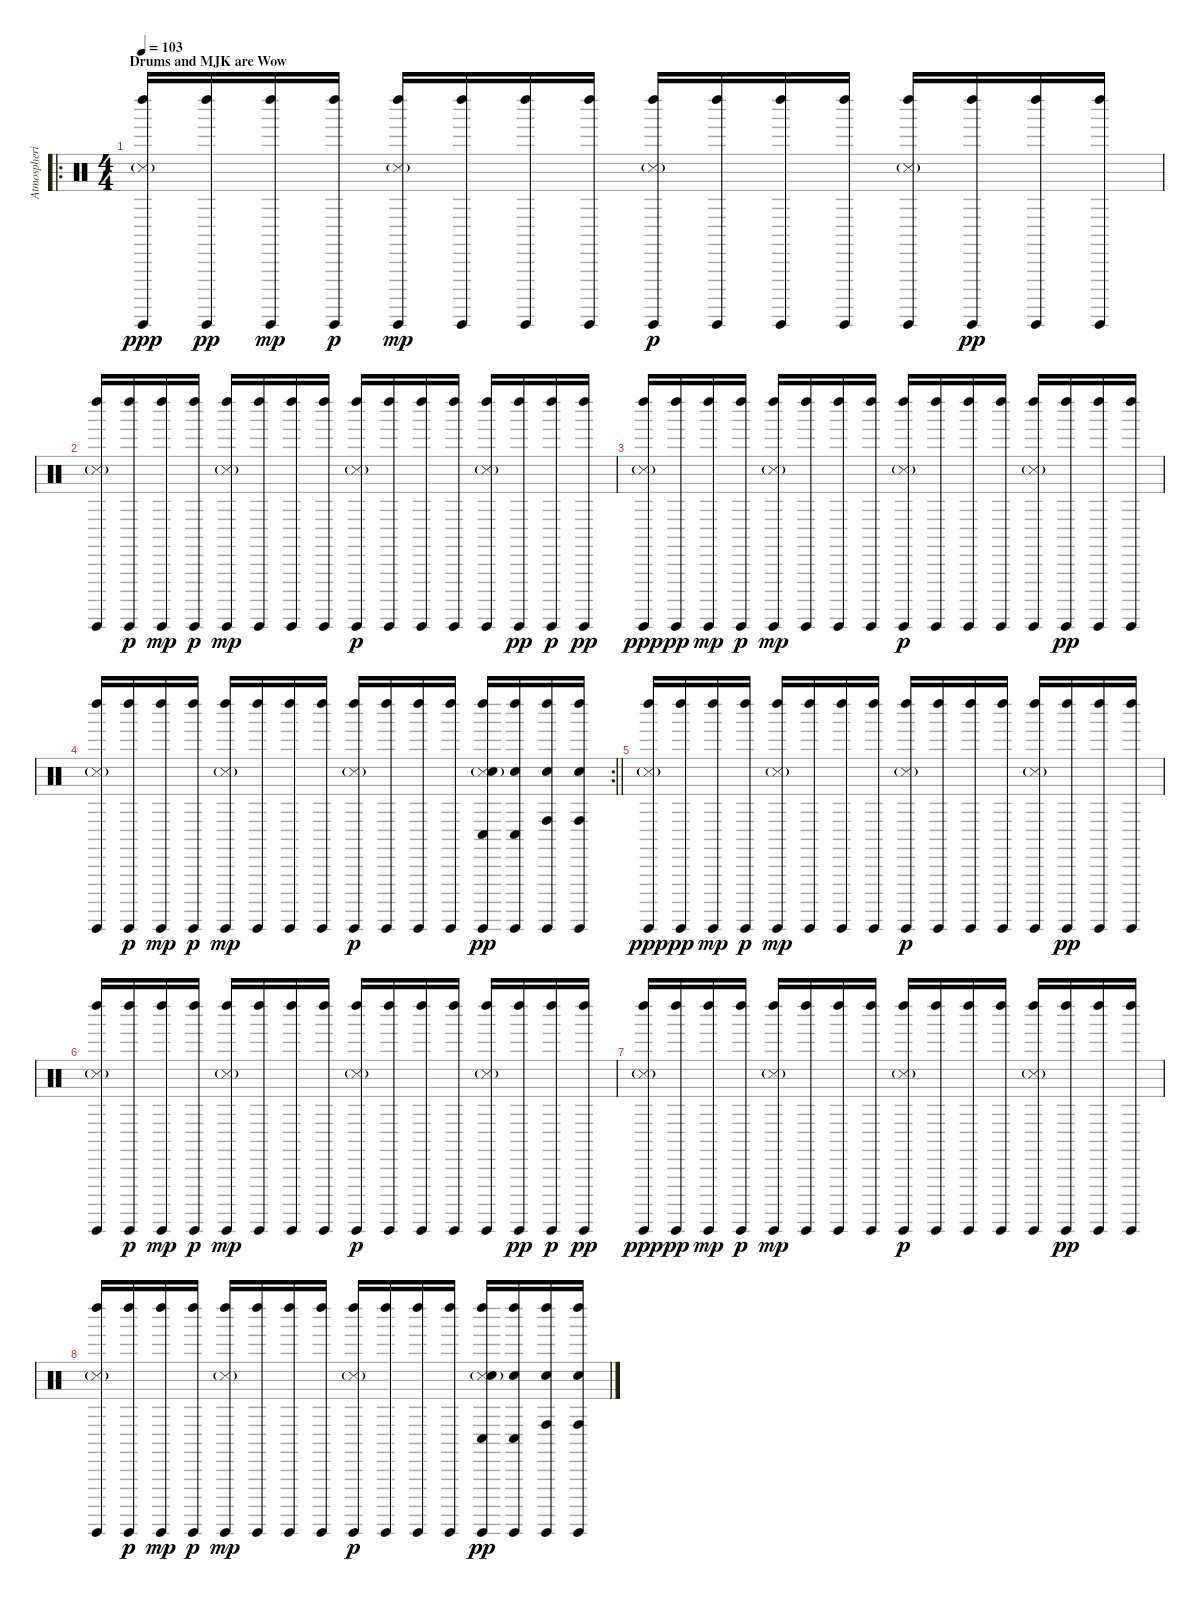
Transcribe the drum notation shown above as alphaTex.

\track ("Atmospheric Percussion" "Atmospheri") {instrument percussion}
\staff {score}
\articulation defaults
\ro
\ts (4 4)
\section ("" "Drums and MJK are Wow")
\tempo 103
\clef neutral
\ks c
("Guiro (hit)" "Snare (side stick) 3"{g} "Left Maraca (hit)").16{dy ppp} ("Guiro (hit)" "Left Maraca (hit)").16{dy pp} ("Guiro (hit)" "Left Maraca (hit)").16{dy mp} ("Guiro (hit)" "Left Maraca (hit)").16{dy p} ("Guiro (hit)" "Snare (side stick) 3"{g} "Left Maraca (hit)").16{dy mp} ("Guiro (hit)" "Left Maraca (hit)").16 ("Guiro (hit)" "Left Maraca (hit)").16 ("Guiro (hit)" "Left Maraca (hit)").16 ("Guiro (hit)" "Snare (side stick) 3"{g} "Left Maraca (hit)").16{dy p} ("Guiro (hit)" "Left Maraca (hit)").16 ("Guiro (hit)" "Left Maraca (hit)").16 ("Guiro (hit)" "Left Maraca (hit)").16 ("Guiro (hit)" "Snare (side stick) 3"{g} "Left Maraca (hit)").16 ("Guiro (hit)" "Left Maraca (hit)").16{dy pp} ("Guiro (hit)" "Left Maraca (hit)").16 ("Guiro (hit)" "Left Maraca (hit)").16 |
("Guiro (hit)" "Snare (side stick) 3"{g} "Left Maraca (hit)").16 ("Guiro (hit)" "Left Maraca (hit)").16{dy p} ("Guiro (hit)" "Left Maraca (hit)").16{dy mp} ("Guiro (hit)" "Left Maraca (hit)").16{dy p} ("Guiro (hit)" "Snare (side stick) 3"{g} "Left Maraca (hit)").16{dy mp} ("Guiro (hit)" "Left Maraca (hit)").16 ("Guiro (hit)" "Left Maraca (hit)").16 ("Guiro (hit)" "Left Maraca (hit)").16 ("Guiro (hit)" "Snare (side stick) 3"{g} "Left Maraca (hit)").16{dy p} ("Guiro (hit)" "Left Maraca (hit)").16 ("Guiro (hit)" "Left Maraca (hit)").16 ("Guiro (hit)" "Left Maraca (hit)").16 ("Guiro (hit)" "Snare (side stick) 3"{g} "Left Maraca (hit)").16 ("Guiro (hit)" "Left Maraca (hit)").16{dy pp} ("Guiro (hit)" "Left Maraca (hit)").16{dy p} ("Guiro (hit)" "Left Maraca (hit)").16{dy pp} |
("Guiro (hit)" "Snare (side stick) 3"{g} "Left Maraca (hit)").16{dy ppp} ("Guiro (hit)" "Left Maraca (hit)").16{dy pp} ("Guiro (hit)" "Left Maraca (hit)").16{dy mp} ("Guiro (hit)" "Left Maraca (hit)").16{dy p} ("Guiro (hit)" "Snare (side stick) 3"{g} "Left Maraca (hit)").16{dy mp} ("Guiro (hit)" "Left Maraca (hit)").16 ("Guiro (hit)" "Left Maraca (hit)").16 ("Guiro (hit)" "Left Maraca (hit)").16 ("Guiro (hit)" "Snare (side stick) 3"{g} "Left Maraca (hit)").16{dy p} ("Guiro (hit)" "Left Maraca (hit)").16 ("Guiro (hit)" "Left Maraca (hit)").16 ("Guiro (hit)" "Left Maraca (hit)").16 ("Guiro (hit)" "Snare (side stick) 3"{g} "Left Maraca (hit)").16 ("Guiro (hit)" "Left Maraca (hit)").16{dy pp} ("Guiro (hit)" "Left Maraca (hit)").16 ("Guiro (hit)" "Left Maraca (hit)").16 |
\rc 2
\barLineRight lightlight
("Guiro (hit)" "Snare (side stick) 3"{g} "Left Maraca (hit)").16 ("Guiro (hit)" "Left Maraca (hit)").16{dy p} ("Guiro (hit)" "Left Maraca (hit)").16{dy mp} ("Guiro (hit)" "Left Maraca (hit)").16{dy p} ("Guiro (hit)" "Snare (side stick) 3"{g} "Left Maraca (hit)").16{dy mp} ("Guiro (hit)" "Left Maraca (hit)").16 ("Guiro (hit)" "Left Maraca (hit)").16 ("Guiro (hit)" "Left Maraca (hit)").16 ("Guiro (hit)" "Snare (side stick) 3"{g} "Left Maraca (hit)").16{dy p} ("Guiro (hit)" "Left Maraca (hit)").16 ("Guiro (hit)" "Left Maraca (hit)").16 ("Guiro (hit)" "Left Maraca (hit)").16 ("Guiro (hit)" "Snare (side stick) 3"{g} "Left Maraca (hit)" "Conga low (hit)" "Electric Snare (hit)").16{dy pp} ("Guiro (hit)" "Left Maraca (hit)" "Conga low (hit)" "Electric Snare (hit)").16 ("Guiro (hit)" "Left Maraca (hit)" "Conga high (hit)" "Electric Snare (hit)").16 ("Guiro (hit)" "Left Maraca (hit)" "Conga high (hit)" "Electric Snare (hit)").16 |
("Guiro (hit)" "Snare (side stick) 3"{g} "Left Maraca (hit)").16{dy ppp} ("Guiro (hit)" "Left Maraca (hit)").16{dy pp} ("Guiro (hit)" "Left Maraca (hit)").16{dy mp} ("Guiro (hit)" "Left Maraca (hit)").16{dy p} ("Guiro (hit)" "Snare (side stick) 3"{g} "Left Maraca (hit)").16{dy mp} ("Guiro (hit)" "Left Maraca (hit)").16 ("Guiro (hit)" "Left Maraca (hit)").16 ("Guiro (hit)" "Left Maraca (hit)").16 ("Guiro (hit)" "Snare (side stick) 3"{g} "Left Maraca (hit)").16{dy p} ("Guiro (hit)" "Left Maraca (hit)").16 ("Guiro (hit)" "Left Maraca (hit)").16 ("Guiro (hit)" "Left Maraca (hit)").16 ("Guiro (hit)" "Snare (side stick) 3"{g} "Left Maraca (hit)").16 ("Guiro (hit)" "Left Maraca (hit)").16{dy pp} ("Guiro (hit)" "Left Maraca (hit)").16 ("Guiro (hit)" "Left Maraca (hit)").16 |
("Guiro (hit)" "Snare (side stick) 3"{g} "Left Maraca (hit)").16 ("Guiro (hit)" "Left Maraca (hit)").16{dy p} ("Guiro (hit)" "Left Maraca (hit)").16{dy mp} ("Guiro (hit)" "Left Maraca (hit)").16{dy p} ("Guiro (hit)" "Snare (side stick) 3"{g} "Left Maraca (hit)").16{dy mp} ("Guiro (hit)" "Left Maraca (hit)").16 ("Guiro (hit)" "Left Maraca (hit)").16 ("Guiro (hit)" "Left Maraca (hit)").16 ("Guiro (hit)" "Snare (side stick) 3"{g} "Left Maraca (hit)").16{dy p} ("Guiro (hit)" "Left Maraca (hit)").16 ("Guiro (hit)" "Left Maraca (hit)").16 ("Guiro (hit)" "Left Maraca (hit)").16 ("Guiro (hit)" "Snare (side stick) 3"{g} "Left Maraca (hit)").16 ("Guiro (hit)" "Left Maraca (hit)").16{dy pp} ("Guiro (hit)" "Left Maraca (hit)").16{dy p} ("Guiro (hit)" "Left Maraca (hit)").16{dy pp} |
("Guiro (hit)" "Snare (side stick) 3"{g} "Left Maraca (hit)").16{dy ppp} ("Guiro (hit)" "Left Maraca (hit)").16{dy pp} ("Guiro (hit)" "Left Maraca (hit)").16{dy mp} ("Guiro (hit)" "Left Maraca (hit)").16{dy p} ("Guiro (hit)" "Snare (side stick) 3"{g} "Left Maraca (hit)").16{dy mp} ("Guiro (hit)" "Left Maraca (hit)").16 ("Guiro (hit)" "Left Maraca (hit)").16 ("Guiro (hit)" "Left Maraca (hit)").16 ("Guiro (hit)" "Snare (side stick) 3"{g} "Left Maraca (hit)").16{dy p} ("Guiro (hit)" "Left Maraca (hit)").16 ("Guiro (hit)" "Left Maraca (hit)").16 ("Guiro (hit)" "Left Maraca (hit)").16 ("Guiro (hit)" "Snare (side stick) 3"{g} "Left Maraca (hit)").16 ("Guiro (hit)" "Left Maraca (hit)").16{dy pp} ("Guiro (hit)" "Left Maraca (hit)").16 ("Guiro (hit)" "Left Maraca (hit)").16 |
("Guiro (hit)" "Snare (side stick) 3"{g} "Left Maraca (hit)").16 ("Guiro (hit)" "Left Maraca (hit)").16{dy p} ("Guiro (hit)" "Left Maraca (hit)").16{dy mp} ("Guiro (hit)" "Left Maraca (hit)").16{dy p} ("Guiro (hit)" "Snare (side stick) 3"{g} "Left Maraca (hit)").16{dy mp} ("Guiro (hit)" "Left Maraca (hit)").16 ("Guiro (hit)" "Left Maraca (hit)").16 ("Guiro (hit)" "Left Maraca (hit)").16 ("Guiro (hit)" "Snare (side stick) 3"{g} "Left Maraca (hit)").16{dy p} ("Guiro (hit)" "Left Maraca (hit)").16 ("Guiro (hit)" "Left Maraca (hit)").16 ("Guiro (hit)" "Left Maraca (hit)").16 ("Guiro (hit)" "Snare (side stick) 3"{g} "Left Maraca (hit)" "Conga low (hit)" "Electric Snare (hit)").16{dy pp} ("Guiro (hit)" "Left Maraca (hit)" "Conga low (hit)" "Electric Snare (hit)").16 ("Guiro (hit)" "Left Maraca (hit)" "Conga high (hit)" "Electric Snare (hit)").16 ("Guiro (hit)" "Left Maraca (hit)" "Conga high (hit)" "Electric Snare (hit)").16
